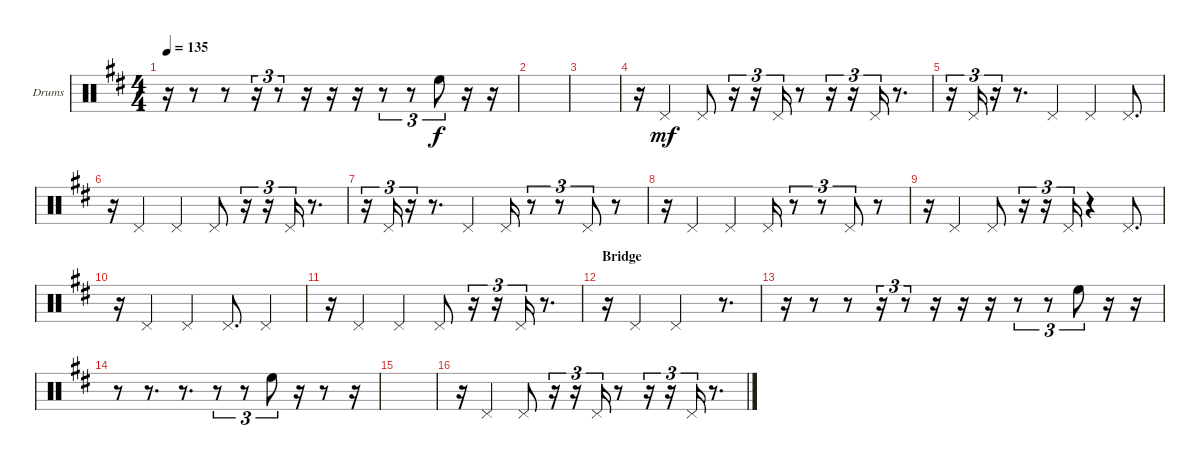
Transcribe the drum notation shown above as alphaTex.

\bracketExtendMode groupsimilarinstruments
\firstSystemTrackNameOrientation horizontal
\otherSystemsTrackNameOrientation horizontal
\track ("HH" "Drums") {instrument percussion}
\staff {score}
\articulation defaults
\ts (4 4)
\tempo 135
\clef neutral
\ks d
r.16{dy mf} r.8 r.8 r.16{tu (3 2)} r.8{tu (3 2)} r.16 r.16 r.16 r.8{tu (3 2)} r.8{tu (3 2)} "High Floor Tom (hit)".8{tu (3 2) dy f} r.16 r.16 |
|
|
r.16 "Pedal Hi-Hat (hit)".4{dy mf} "Pedal Hi-Hat (hit)".8 r.16{tu (3 2)} r.16{tu (3 2)} "Pedal Hi-Hat (hit)".16{tu (3 2)} r.8 r.16{tu (3 2)} r.16{tu (3 2)} "Pedal Hi-Hat (hit)".16{tu (3 2)} r.8{d} |
r.16{tu (3 2)} "Pedal Hi-Hat (hit)".16{tu (3 2)} r.16{tu (3 2)} r.8{d} "Pedal Hi-Hat (hit)".4 "Pedal Hi-Hat (hit)".4 "Pedal Hi-Hat (hit)".8{d} |
r.16 "Pedal Hi-Hat (hit)".4 "Pedal Hi-Hat (hit)".4 "Pedal Hi-Hat (hit)".8 r.16{tu (3 2)} r.16{tu (3 2)} "Pedal Hi-Hat (hit)".16{tu (3 2)} r.8{d} |
r.16{tu (3 2)} "Pedal Hi-Hat (hit)".16{tu (3 2)} r.16{tu (3 2)} r.8{d} "Pedal Hi-Hat (hit)".4 "Pedal Hi-Hat (hit)".16 r.8{tu (3 2)} r.8{tu (3 2)} "Pedal Hi-Hat (hit)".8{tu (3 2)} r.8 |
r.16 "Pedal Hi-Hat (hit)".4 "Pedal Hi-Hat (hit)".4 "Pedal Hi-Hat (hit)".16 r.8{tu (3 2)} r.8{tu (3 2)} "Pedal Hi-Hat (hit)".8{tu (3 2)} r.8 |
r.16 "Pedal Hi-Hat (hit)".4 "Pedal Hi-Hat (hit)".8 r.16{tu (3 2)} r.16{tu (3 2)} "Pedal Hi-Hat (hit)".16{tu (3 2)} r.4 "Pedal Hi-Hat (hit)".8{d} |
r.16 "Pedal Hi-Hat (hit)".4 "Pedal Hi-Hat (hit)".4 "Pedal Hi-Hat (hit)".8{d} "Pedal Hi-Hat (hit)".4 |
r.16 "Pedal Hi-Hat (hit)".4 "Pedal Hi-Hat (hit)".4 "Pedal Hi-Hat (hit)".8 r.16{tu (3 2)} r.16{tu (3 2)} "Pedal Hi-Hat (hit)".16{tu (3 2)} r.8{d} |
\section ("" "Bridge")
r.16 "Pedal Hi-Hat (hit)".4 "Pedal Hi-Hat (hit)".2 r.8{d} |
r.16 r.8 r.8 r.16{tu (3 2)} r.8{tu (3 2)} r.16 r.16 r.16 r.8{tu (3 2)} r.8{tu (3 2)} "High Floor Tom (hit)".8{tu (3 2)} r.16 r.16 |
r.8 r.8{d} r.8{d} r.8{tu (3 2)} r.8{tu (3 2)} "High Floor Tom (hit)".8{tu (3 2)} r.16 r.8 r.16 |
|
r.16 "Pedal Hi-Hat (hit)".4 "Pedal Hi-Hat (hit)".8 r.16{tu (3 2)} r.16{tu (3 2)} "Pedal Hi-Hat (hit)".16{tu (3 2)} r.8 r.16{tu (3 2)} r.16{tu (3 2)} "Pedal Hi-Hat (hit)".16{tu (3 2)} r.8{d}
